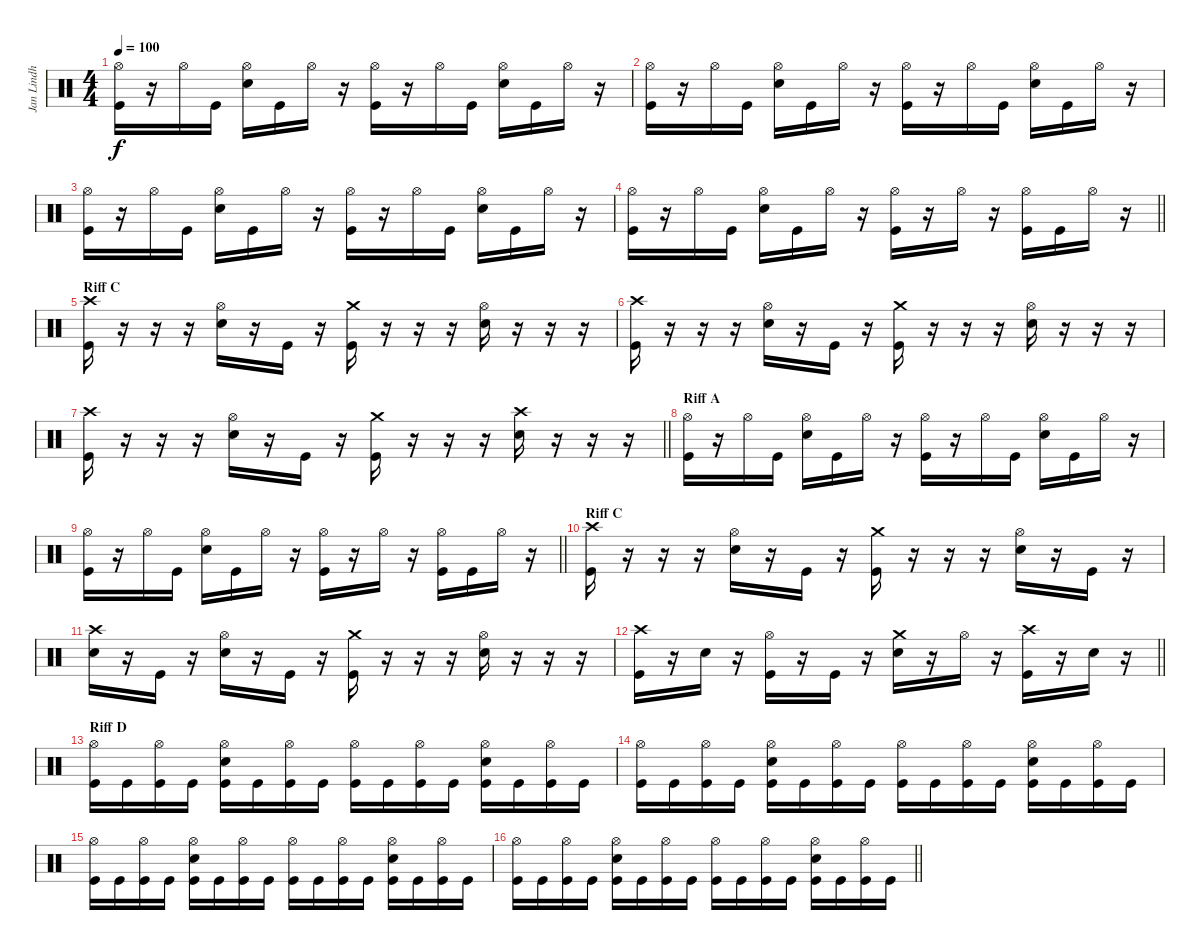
\track ("Jan Lindh" "Jan Lindh") {instrument percussion}
\staff {score}
\articulation defaults
\ts (4 4)
\tempo 100
\clef neutral
\ks c
("Hi-Hat (open)" "Kick (hit)").16{dy f} r.16 "Hi-Hat (open)".16 "Kick (hit)".16 ("Hi-Hat (open)" "Snare (hit) 2").16 "Kick (hit)".16 "Hi-Hat (open)".16 r.16 ("Hi-Hat (open)" "Kick (hit)").16 r.16 "Hi-Hat (open)".16 "Kick (hit)".16 ("Hi-Hat (open)" "Snare (hit) 2").16 "Kick (hit)".16 "Hi-Hat (open)".16 r.16 |
("Hi-Hat (open)" "Kick (hit)").16 r.16 "Hi-Hat (open)".16 "Kick (hit)".16 ("Hi-Hat (open)" "Snare (hit) 2").16 "Kick (hit)".16 "Hi-Hat (open)".16 r.16 ("Hi-Hat (open)" "Kick (hit)").16 r.16 "Hi-Hat (open)".16 "Kick (hit)".16 ("Hi-Hat (open)" "Snare (hit) 2").16 "Kick (hit)".16 "Hi-Hat (open)".16 r.16 |
("Hi-Hat (open)" "Kick (hit)").16 r.16 "Hi-Hat (open)".16 "Kick (hit)".16 ("Hi-Hat (open)" "Snare (hit) 2").16 "Kick (hit)".16 "Hi-Hat (open)".16 r.16 ("Hi-Hat (open)" "Kick (hit)").16 r.16 "Hi-Hat (open)".16 "Kick (hit)".16 ("Hi-Hat (open)" "Snare (hit) 2").16 "Kick (hit)".16 "Hi-Hat (open)".16 r.16 |
\barLineRight lightlight
("Hi-Hat (open)" "Kick (hit)").16 r.16 "Hi-Hat (open)".16 "Kick (hit)".16 ("Hi-Hat (open)" "Snare (hit) 2").16 "Kick (hit)".16 "Hi-Hat (open)".16 r.16 ("Hi-Hat (open)" "Kick (hit)").16 r.16 "Hi-Hat (open)".16 r.16 ("Hi-Hat (open)" "Kick (hit)").16 "Kick (hit)".16 "Hi-Hat (open)".16 r.16 |
\section ("" "Riff C")
("Crash high (hit)" "Kick (hit)").16 r.16 r.16 r.16 ("Hi-Hat (open)" "Snare (hit) 2").16 r.16 "Kick (hit)".16 r.16 ("Crash medium (hit)" "Kick (hit)").16 r.16 r.16 r.16 ("Hi-Hat (open)" "Snare (hit) 2").16 r.16 r.16 r.16 |
("Crash high (hit)" "Kick (hit)").16 r.16 r.16 r.16 ("Hi-Hat (open)" "Snare (hit) 2").16 r.16 "Kick (hit)".16 r.16 ("Crash medium (hit)" "Kick (hit)").16 r.16 r.16 r.16 ("Hi-Hat (open)" "Snare (hit) 2").16 r.16 r.16 r.16 |
\barLineRight lightlight
("Crash high (hit)" "Kick (hit)").16 r.16 r.16 r.16 ("Hi-Hat (open)" "Snare (hit) 2").16 r.16 "Kick (hit)".16 r.16 ("Crash medium (hit)" "Kick (hit)").16 r.16 r.16 r.16 ("Crash high (hit)" "Snare (hit) 2").16 r.16 r.16 r.16 |
\section ("" "Riff A")
("Hi-Hat (open)" "Kick (hit)").16 r.16 "Hi-Hat (open)".16 "Kick (hit)".16 ("Hi-Hat (open)" "Snare (hit) 2").16 "Kick (hit)".16 "Hi-Hat (open)".16 r.16 ("Hi-Hat (open)" "Kick (hit)").16 r.16 "Hi-Hat (open)".16 "Kick (hit)".16 ("Hi-Hat (open)" "Snare (hit) 2").16 "Kick (hit)".16 "Hi-Hat (open)".16 r.16 |
\barLineRight lightlight
("Hi-Hat (open)" "Kick (hit)").16 r.16 "Hi-Hat (open)".16 "Kick (hit)".16 ("Hi-Hat (open)" "Snare (hit) 2").16 "Kick (hit)".16 "Hi-Hat (open)".16 r.16 ("Hi-Hat (open)" "Kick (hit)").16 r.16 "Hi-Hat (open)".16 r.16 ("Hi-Hat (open)" "Kick (hit)").16 "Kick (hit)".16 "Hi-Hat (open)".16 r.16 |
\section ("" "Riff C")
("Crash high (hit)" "Kick (hit)").16 r.16 r.16 r.16 ("Hi-Hat (open)" "Snare (hit) 2").16 r.16 "Kick (hit)".16 r.16 ("Crash medium (hit)" "Kick (hit)").16 r.16 r.16 r.16 ("Hi-Hat (open)" "Snare (hit) 2").16 r.16 "Kick (hit)".16 r.16 |
("Crash high (hit)" "Snare (hit) 2").16 r.16 "Kick (hit)".16 r.16 ("Hi-Hat (open)" "Snare (hit) 2").16 r.16 "Kick (hit)".16 r.16 ("Crash medium (hit)" "Kick (hit)").16 r.16 r.16 r.16 ("Hi-Hat (open)" "Snare (hit) 2").16 r.16 r.16 r.16 |
\barLineRight lightlight
("Crash high (hit)" "Kick (hit)").16 r.16 "Snare (hit) 2".16 r.16 ("Hi-Hat (open)" "Kick (hit)").16 r.16 "Kick (hit)".16 r.16 ("Crash medium (hit)" "Snare (hit) 2").16 r.16 "Hi-Hat (open)".16 r.16 ("Crash high (hit)" "Kick (hit)").16 r.16 "Snare (hit) 2".16 r.16 |
\section ("" "Riff D")
("Hi-Hat (open)" "Kick (hit)").16 "Kick (hit)".16 ("Hi-Hat (open)" "Kick (hit)").16 "Kick (hit)".16 ("Hi-Hat (open)" "Snare (hit) 2" "Kick (hit)").16 "Kick (hit)".16 ("Hi-Hat (open)" "Kick (hit)").16 "Kick (hit)".16 ("Hi-Hat (open)" "Kick (hit)").16 "Kick (hit)".16 ("Hi-Hat (open)" "Kick (hit)").16 "Kick (hit)".16 ("Hi-Hat (open)" "Snare (hit) 2" "Kick (hit)").16 "Kick (hit)".16 ("Hi-Hat (open)" "Kick (hit)").16 "Kick (hit)".16 |
("Hi-Hat (open)" "Kick (hit)").16 "Kick (hit)".16 ("Hi-Hat (open)" "Kick (hit)").16 "Kick (hit)".16 ("Hi-Hat (open)" "Snare (hit) 2" "Kick (hit)").16 "Kick (hit)".16 ("Hi-Hat (open)" "Kick (hit)").16 "Kick (hit)".16 ("Hi-Hat (open)" "Kick (hit)").16 "Kick (hit)".16 ("Hi-Hat (open)" "Kick (hit)").16 "Kick (hit)".16 ("Hi-Hat (open)" "Snare (hit) 2" "Kick (hit)").16 "Kick (hit)".16 ("Hi-Hat (open)" "Kick (hit)").16 "Kick (hit)".16 |
("Hi-Hat (open)" "Kick (hit)").16 "Kick (hit)".16 ("Hi-Hat (open)" "Kick (hit)").16 "Kick (hit)".16 ("Hi-Hat (open)" "Snare (hit) 2" "Kick (hit)").16 "Kick (hit)".16 ("Hi-Hat (open)" "Kick (hit)").16 "Kick (hit)".16 ("Hi-Hat (open)" "Kick (hit)").16 "Kick (hit)".16 ("Hi-Hat (open)" "Kick (hit)").16 "Kick (hit)".16 ("Hi-Hat (open)" "Snare (hit) 2" "Kick (hit)").16 "Kick (hit)".16 ("Hi-Hat (open)" "Kick (hit)").16 "Kick (hit)".16 |
\barLineRight lightlight
("Hi-Hat (open)" "Kick (hit)").16 "Kick (hit)".16 ("Hi-Hat (open)" "Kick (hit)").16 "Kick (hit)".16 ("Hi-Hat (open)" "Snare (hit) 2" "Kick (hit)").16 "Kick (hit)".16 ("Hi-Hat (open)" "Kick (hit)").16 "Kick (hit)".16 ("Hi-Hat (open)" "Kick (hit)").16 "Kick (hit)".16 ("Hi-Hat (open)" "Kick (hit)").16 "Kick (hit)".16 ("Hi-Hat (open)" "Snare (hit) 2" "Kick (hit)").16 "Kick (hit)".16 ("Hi-Hat (open)" "Kick (hit)").16 "Kick (hit)".16
